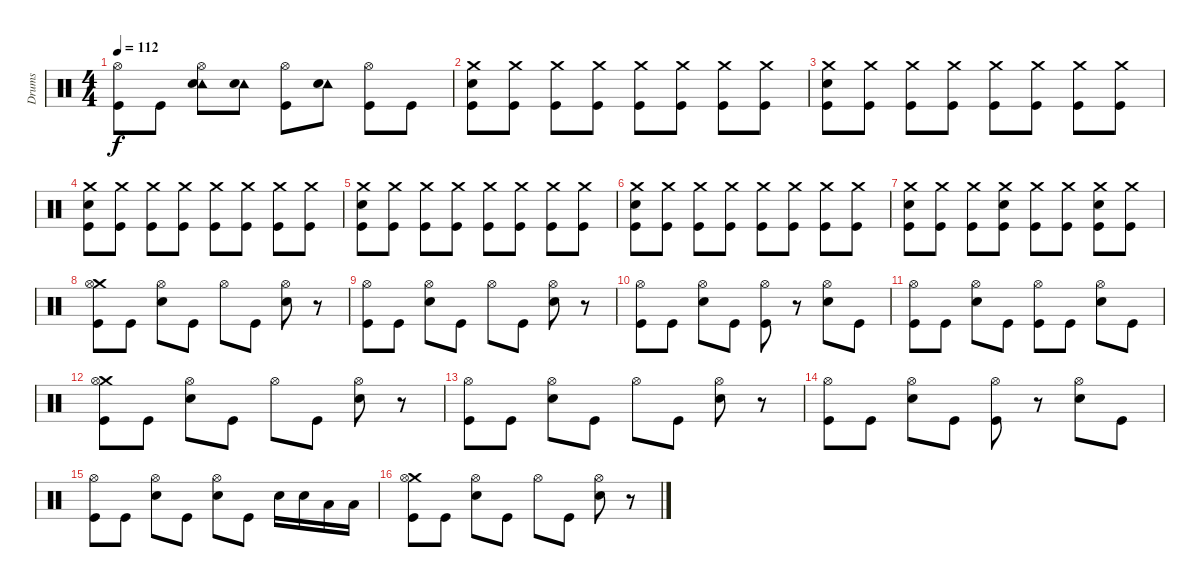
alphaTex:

\track ("Drums" "Drums") {instrument percussion}
\staff {score}
\articulation defaults
\ts (4 4)
\tempo 112
\clef neutral
\ks c
("Hi-Hat (open)" "Kick (hit)").8{dy f} "Kick (hit)".8 ("Tambourine (hit)" "Hi-Hat (open)" "Snare (hit) 2").8 ("Tambourine (hit)" "Snare (hit) 2").8 ("Hi-Hat (open)" "Kick (hit)").8 ("Tambourine (hit)" "Snare (hit) 2").8 ("Hi-Hat (open)" "Kick (hit)").8 "Kick (hit)".8 |
("Crash medium (hit)" "Snare (hit) 2" "Kick (hit)").8 ("Crash medium (hit)" "Kick (hit)").8 ("Crash medium (hit)" "Kick (hit)").8 ("Crash medium (hit)" "Kick (hit)").8 ("Crash medium (hit)" "Kick (hit)").8 ("Crash medium (hit)" "Kick (hit)").8 ("Crash medium (hit)" "Kick (hit)").8 ("Crash medium (hit)" "Kick (hit)").8 |
("Crash medium (hit)" "Snare (hit) 2" "Kick (hit)").8 ("Crash medium (hit)" "Kick (hit)").8 ("Crash medium (hit)" "Kick (hit)").8 ("Crash medium (hit)" "Kick (hit)").8 ("Crash medium (hit)" "Kick (hit)").8 ("Crash medium (hit)" "Kick (hit)").8 ("Crash medium (hit)" "Kick (hit)").8 ("Crash medium (hit)" "Kick (hit)").8 |
("Crash medium (hit)" "Snare (hit) 2" "Kick (hit)").8 ("Crash medium (hit)" "Kick (hit)").8 ("Crash medium (hit)" "Kick (hit)").8 ("Crash medium (hit)" "Kick (hit)").8 ("Crash medium (hit)" "Kick (hit)").8 ("Crash medium (hit)" "Kick (hit)").8 ("Crash medium (hit)" "Kick (hit)").8 ("Crash medium (hit)" "Kick (hit)").8 |
("Crash medium (hit)" "Snare (hit) 2" "Kick (hit)").8 ("Crash medium (hit)" "Kick (hit)").8 ("Crash medium (hit)" "Kick (hit)").8 ("Crash medium (hit)" "Kick (hit)").8 ("Crash medium (hit)" "Kick (hit)").8 ("Crash medium (hit)" "Kick (hit)").8 ("Crash medium (hit)" "Kick (hit)").8 ("Crash medium (hit)" "Kick (hit)").8 |
("Crash medium (hit)" "Snare (hit) 2" "Kick (hit)").8 ("Crash medium (hit)" "Kick (hit)").8 ("Crash medium (hit)" "Kick (hit)").8 ("Crash medium (hit)" "Kick (hit)").8 ("Crash medium (hit)" "Kick (hit)").8 ("Crash medium (hit)" "Kick (hit)").8 ("Crash medium (hit)" "Kick (hit)").8 ("Crash medium (hit)" "Kick (hit)").8 |
("Crash medium (hit)" "Snare (hit) 2" "Kick (hit)").8 ("Crash medium (hit)" "Kick (hit)").8 ("Crash medium (hit)" "Kick (hit)").8 ("Crash medium (hit)" "Snare (hit) 2" "Kick (hit)").8 ("Crash medium (hit)" "Kick (hit)").8 ("Crash medium (hit)" "Kick (hit)").8 ("Crash medium (hit)" "Snare (hit) 2" "Kick (hit)").8 ("Crash medium (hit)" "Kick (hit)").8 |
("Crash medium (hit)" "Hi-Hat (open)" "Kick (hit)").8 "Kick (hit)".8 ("Hi-Hat (open)" "Snare (hit) 2").8 "Kick (hit)".8 "Hi-Hat (open)".8 "Kick (hit)".8 ("Hi-Hat (open)" "Snare (hit) 2").8 r.8 |
("Hi-Hat (open)" "Kick (hit)").8 "Kick (hit)".8 ("Hi-Hat (open)" "Snare (hit) 2").8 "Kick (hit)".8 "Hi-Hat (open)".8 "Kick (hit)".8 ("Hi-Hat (open)" "Snare (hit) 2").8 r.8 |
("Hi-Hat (open)" "Kick (hit)").8 "Kick (hit)".8 ("Hi-Hat (open)" "Snare (hit) 2").8 "Kick (hit)".8 ("Hi-Hat (open)" "Kick (hit)").8 r.8 ("Hi-Hat (open)" "Snare (hit) 2").8 "Kick (hit)".8 |
("Hi-Hat (open)" "Kick (hit)").8 "Kick (hit)".8 ("Hi-Hat (open)" "Snare (hit) 2").8 "Kick (hit)".8 ("Hi-Hat (open)" "Kick (hit)").8 "Kick (hit)".8 ("Hi-Hat (open)" "Snare (hit) 2").8 "Kick (hit)".8 |
("Crash medium (hit)" "Hi-Hat (open)" "Kick (hit)").8 "Kick (hit)".8 ("Hi-Hat (open)" "Snare (hit) 2").8 "Kick (hit)".8 "Hi-Hat (open)".8 "Kick (hit)".8 ("Hi-Hat (open)" "Snare (hit) 2").8 r.8 |
("Hi-Hat (open)" "Kick (hit)").8 "Kick (hit)".8 ("Hi-Hat (open)" "Snare (hit) 2").8 "Kick (hit)".8 "Hi-Hat (open)".8 "Kick (hit)".8 ("Hi-Hat (open)" "Snare (hit) 2").8 r.8 |
("Hi-Hat (open)" "Kick (hit)").8 "Kick (hit)".8 ("Hi-Hat (open)" "Snare (hit) 2").8 "Kick (hit)".8 ("Hi-Hat (open)" "Kick (hit)").8 r.8 ("Hi-Hat (open)" "Snare (hit) 2").8 "Kick (hit)".8 |
("Hi-Hat (open)" "Kick (hit)").8 "Kick (hit)".8 ("Hi-Hat (open)" "Snare (hit) 2").8 "Kick (hit)".8 ("Hi-Hat (open)" "Snare (hit) 2").8 "Kick (hit)".8 "Snare (hit) 2".16 "Snare (hit) 2".16 "Low Floor Tom (hit)".16 "Low Floor Tom (hit)".16 |
("Crash medium (hit)" "Hi-Hat (open)" "Kick (hit)").8 "Kick (hit)".8 ("Hi-Hat (open)" "Snare (hit) 2").8 "Kick (hit)".8 "Hi-Hat (open)".8 "Kick (hit)".8 ("Hi-Hat (open)" "Snare (hit) 2").8 r.8
